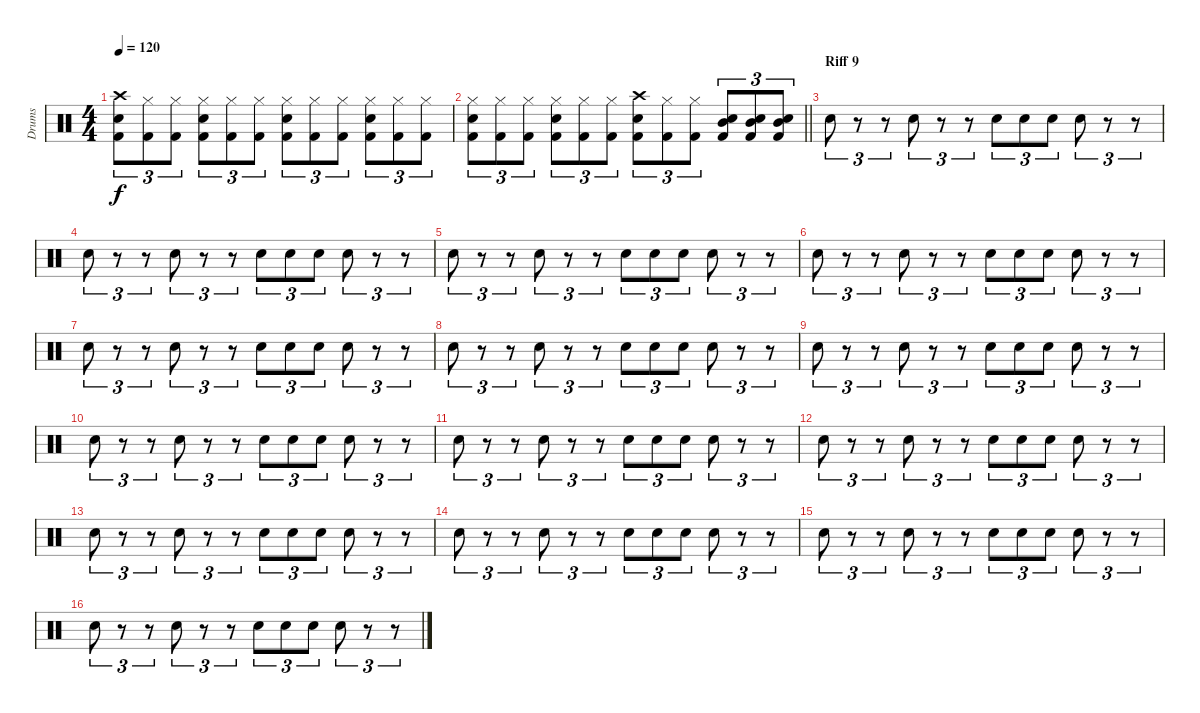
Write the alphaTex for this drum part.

\track ("Drums" "Drums") {instrument percussion}
\staff {score}
\articulation defaults
\ts (4 4)
\tempo 120
\clef neutral
\ks c
("Kick (hit) 2" "Crash high (hit)" "Snare (hit) 2").8{tu (3 2) dy f} ("Kick (hit) 2" "Hi-Hat (closed)").8{tu (3 2)} ("Kick (hit) 2" "Hi-Hat (closed)").8{tu (3 2)} ("Kick (hit) 2" "Snare (hit) 2" "Hi-Hat (closed)").8{tu (3 2)} ("Kick (hit) 2" "Hi-Hat (closed)").8{tu (3 2)} ("Kick (hit) 2" "Hi-Hat (closed)").8{tu (3 2)} ("Kick (hit) 2" "Snare (hit) 2" "Hi-Hat (closed)").8{tu (3 2)} ("Kick (hit) 2" "Hi-Hat (closed)").8{tu (3 2)} ("Kick (hit) 2" "Hi-Hat (closed)").8{tu (3 2)} ("Kick (hit) 2" "Snare (hit) 2" "Hi-Hat (closed)").8{tu (3 2)} ("Kick (hit) 2" "Hi-Hat (closed)").8{tu (3 2)} ("Kick (hit) 2" "Hi-Hat (closed)").8{tu (3 2)} |
\barLineRight lightlight
("Kick (hit) 2" "Snare (hit) 2" "Hi-Hat (closed)").8{tu (3 2)} ("Kick (hit) 2" "Hi-Hat (closed)").8{tu (3 2)} ("Kick (hit) 2" "Hi-Hat (closed)").8{tu (3 2)} ("Kick (hit) 2" "Snare (hit) 2" "Hi-Hat (closed)").8{tu (3 2)} ("Kick (hit) 2" "Hi-Hat (closed)").8{tu (3 2)} ("Kick (hit) 2" "Hi-Hat (closed)").8{tu (3 2)} ("Kick (hit) 2" "Crash high (hit)" "Snare (hit) 2").8{tu (3 2)} ("Kick (hit) 2" "Hi-Hat (closed)").8{tu (3 2)} ("Kick (hit) 2" "Hi-Hat (closed)").8{tu (3 2)} ("Kick (hit) 2" "Snare (hit) 2" "Mid Tom (hit)").8{tu (3 2)} ("Kick (hit) 2" "Snare (hit) 2" "Mid Tom (hit)").8{tu (3 2)} ("Kick (hit) 2" "Snare (hit) 2" "Mid Tom (hit)").8{tu (3 2)} |
\section ("" "Riff 9")
"Snare (hit) 2".8{tu (3 2)} r.8{tu (3 2)} r.8{tu (3 2)} "Snare (hit) 2".8{tu (3 2)} r.8{tu (3 2)} r.8{tu (3 2)} "Snare (hit) 2".8{tu (3 2)} "Snare (hit) 2".8{tu (3 2)} "Snare (hit) 2".8{tu (3 2)} "Snare (hit) 2".8{tu (3 2)} r.8{tu (3 2)} r.8{tu (3 2)} |
"Snare (hit) 2".8{tu (3 2)} r.8{tu (3 2)} r.8{tu (3 2)} "Snare (hit) 2".8{tu (3 2)} r.8{tu (3 2)} r.8{tu (3 2)} "Snare (hit) 2".8{tu (3 2)} "Snare (hit) 2".8{tu (3 2)} "Snare (hit) 2".8{tu (3 2)} "Snare (hit) 2".8{tu (3 2)} r.8{tu (3 2)} r.8{tu (3 2)} |
"Snare (hit) 2".8{tu (3 2)} r.8{tu (3 2)} r.8{tu (3 2)} "Snare (hit) 2".8{tu (3 2)} r.8{tu (3 2)} r.8{tu (3 2)} "Snare (hit) 2".8{tu (3 2)} "Snare (hit) 2".8{tu (3 2)} "Snare (hit) 2".8{tu (3 2)} "Snare (hit) 2".8{tu (3 2)} r.8{tu (3 2)} r.8{tu (3 2)} |
"Snare (hit) 2".8{tu (3 2)} r.8{tu (3 2)} r.8{tu (3 2)} "Snare (hit) 2".8{tu (3 2)} r.8{tu (3 2)} r.8{tu (3 2)} "Snare (hit) 2".8{tu (3 2)} "Snare (hit) 2".8{tu (3 2)} "Snare (hit) 2".8{tu (3 2)} "Snare (hit) 2".8{tu (3 2)} r.8{tu (3 2)} r.8{tu (3 2)} |
"Snare (hit) 2".8{tu (3 2)} r.8{tu (3 2)} r.8{tu (3 2)} "Snare (hit) 2".8{tu (3 2)} r.8{tu (3 2)} r.8{tu (3 2)} "Snare (hit) 2".8{tu (3 2)} "Snare (hit) 2".8{tu (3 2)} "Snare (hit) 2".8{tu (3 2)} "Snare (hit) 2".8{tu (3 2)} r.8{tu (3 2)} r.8{tu (3 2)} |
"Snare (hit) 2".8{tu (3 2)} r.8{tu (3 2)} r.8{tu (3 2)} "Snare (hit) 2".8{tu (3 2)} r.8{tu (3 2)} r.8{tu (3 2)} "Snare (hit) 2".8{tu (3 2)} "Snare (hit) 2".8{tu (3 2)} "Snare (hit) 2".8{tu (3 2)} "Snare (hit) 2".8{tu (3 2)} r.8{tu (3 2)} r.8{tu (3 2)} |
"Snare (hit) 2".8{tu (3 2)} r.8{tu (3 2)} r.8{tu (3 2)} "Snare (hit) 2".8{tu (3 2)} r.8{tu (3 2)} r.8{tu (3 2)} "Snare (hit) 2".8{tu (3 2)} "Snare (hit) 2".8{tu (3 2)} "Snare (hit) 2".8{tu (3 2)} "Snare (hit) 2".8{tu (3 2)} r.8{tu (3 2)} r.8{tu (3 2)} |
"Snare (hit) 2".8{tu (3 2)} r.8{tu (3 2)} r.8{tu (3 2)} "Snare (hit) 2".8{tu (3 2)} r.8{tu (3 2)} r.8{tu (3 2)} "Snare (hit) 2".8{tu (3 2)} "Snare (hit) 2".8{tu (3 2)} "Snare (hit) 2".8{tu (3 2)} "Snare (hit) 2".8{tu (3 2)} r.8{tu (3 2)} r.8{tu (3 2)} |
"Snare (hit) 2".8{tu (3 2)} r.8{tu (3 2)} r.8{tu (3 2)} "Snare (hit) 2".8{tu (3 2)} r.8{tu (3 2)} r.8{tu (3 2)} "Snare (hit) 2".8{tu (3 2)} "Snare (hit) 2".8{tu (3 2)} "Snare (hit) 2".8{tu (3 2)} "Snare (hit) 2".8{tu (3 2)} r.8{tu (3 2)} r.8{tu (3 2)} |
"Snare (hit) 2".8{tu (3 2)} r.8{tu (3 2)} r.8{tu (3 2)} "Snare (hit) 2".8{tu (3 2)} r.8{tu (3 2)} r.8{tu (3 2)} "Snare (hit) 2".8{tu (3 2)} "Snare (hit) 2".8{tu (3 2)} "Snare (hit) 2".8{tu (3 2)} "Snare (hit) 2".8{tu (3 2)} r.8{tu (3 2)} r.8{tu (3 2)} |
"Snare (hit) 2".8{tu (3 2)} r.8{tu (3 2)} r.8{tu (3 2)} "Snare (hit) 2".8{tu (3 2)} r.8{tu (3 2)} r.8{tu (3 2)} "Snare (hit) 2".8{tu (3 2)} "Snare (hit) 2".8{tu (3 2)} "Snare (hit) 2".8{tu (3 2)} "Snare (hit) 2".8{tu (3 2)} r.8{tu (3 2)} r.8{tu (3 2)} |
"Snare (hit) 2".8{tu (3 2)} r.8{tu (3 2)} r.8{tu (3 2)} "Snare (hit) 2".8{tu (3 2)} r.8{tu (3 2)} r.8{tu (3 2)} "Snare (hit) 2".8{tu (3 2)} "Snare (hit) 2".8{tu (3 2)} "Snare (hit) 2".8{tu (3 2)} "Snare (hit) 2".8{tu (3 2)} r.8{tu (3 2)} r.8{tu (3 2)} |
"Snare (hit) 2".8{tu (3 2)} r.8{tu (3 2)} r.8{tu (3 2)} "Snare (hit) 2".8{tu (3 2)} r.8{tu (3 2)} r.8{tu (3 2)} "Snare (hit) 2".8{tu (3 2)} "Snare (hit) 2".8{tu (3 2)} "Snare (hit) 2".8{tu (3 2)} "Snare (hit) 2".8{tu (3 2)} r.8{tu (3 2)} r.8{tu (3 2)} |
"Snare (hit) 2".8{tu (3 2)} r.8{tu (3 2)} r.8{tu (3 2)} "Snare (hit) 2".8{tu (3 2)} r.8{tu (3 2)} r.8{tu (3 2)} "Snare (hit) 2".8{tu (3 2)} "Snare (hit) 2".8{tu (3 2)} "Snare (hit) 2".8{tu (3 2)} "Snare (hit) 2".8{tu (3 2)} r.8{tu (3 2)} r.8{tu (3 2)}
